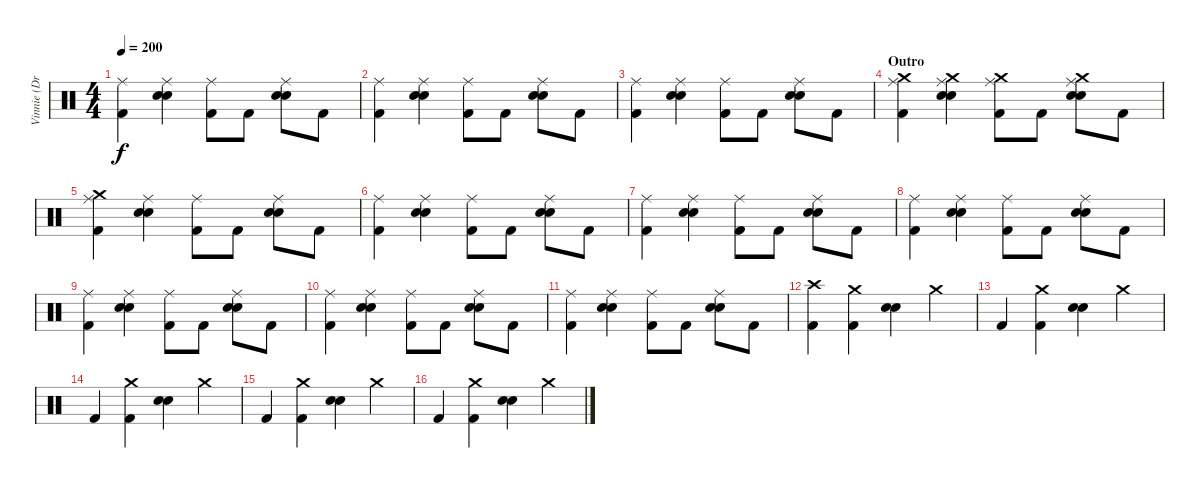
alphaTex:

\track ("Vinnie (Drums)" "Vinnie (Dr") {instrument percussion}
\staff {score}
\articulation defaults
\ts (4 4)
\tempo 200
\clef neutral
\ks c
("Kick (hit) 2" "Ride (middle)").4{dy f} ("Snare (hit) 2" "Electric Snare (hit)" "Ride (middle)").4 ("Kick (hit) 2" "Ride (middle)").8 "Kick (hit) 2".8 ("Snare (hit) 2" "Electric Snare (hit)" "Ride (middle)").8 "Kick (hit) 2".8 |
("Kick (hit) 2" "Ride (middle)").4 ("Snare (hit) 2" "Electric Snare (hit)" "Ride (middle)").4 ("Kick (hit) 2" "Ride (middle)").8 "Kick (hit) 2".8 ("Snare (hit) 2" "Electric Snare (hit)" "Ride (middle)").8 "Kick (hit) 2".8 |
("Kick (hit) 2" "Ride (middle)").4 ("Snare (hit) 2" "Electric Snare (hit)" "Ride (middle)").4 ("Kick (hit) 2" "Ride (middle)").8 "Kick (hit) 2".8 ("Snare (hit) 2" "Electric Snare (hit)" "Ride (middle)").8 "Kick (hit) 2".8 |
\section ("" "Outro")
("Kick (hit) 2" "Ride (middle)" "Crash medium (hit)").4 ("Snare (hit) 2" "Electric Snare (hit)" "Ride (middle)" "Crash medium (hit)").4 ("Kick (hit) 2" "Ride (middle)" "Crash medium (hit)").8 "Kick (hit) 2".8 ("Snare (hit) 2" "Electric Snare (hit)" "Ride (middle)" "Crash medium (hit)").8 "Kick (hit) 2".8 |
("Kick (hit) 2" "Ride (middle)" "Crash medium (hit)").4 ("Snare (hit) 2" "Electric Snare (hit)" "Ride (middle)").4 ("Kick (hit) 2" "Ride (middle)").8 "Kick (hit) 2".8 ("Snare (hit) 2" "Electric Snare (hit)" "Ride (middle)").8 "Kick (hit) 2".8 |
("Kick (hit) 2" "Ride (middle)").4 ("Snare (hit) 2" "Electric Snare (hit)" "Ride (middle)").4 ("Kick (hit) 2" "Ride (middle)").8 "Kick (hit) 2".8 ("Snare (hit) 2" "Electric Snare (hit)" "Ride (middle)").8 "Kick (hit) 2".8 |
("Kick (hit) 2" "Ride (middle)").4 ("Snare (hit) 2" "Electric Snare (hit)" "Ride (middle)").4 ("Kick (hit) 2" "Ride (middle)").8 "Kick (hit) 2".8 ("Snare (hit) 2" "Electric Snare (hit)" "Ride (middle)").8 "Kick (hit) 2".8 |
("Kick (hit) 2" "Ride (middle)").4 ("Snare (hit) 2" "Electric Snare (hit)" "Ride (middle)").4 ("Kick (hit) 2" "Ride (middle)").8 "Kick (hit) 2".8 ("Snare (hit) 2" "Electric Snare (hit)" "Ride (middle)").8 "Kick (hit) 2".8 |
("Kick (hit) 2" "Ride (middle)").4 ("Snare (hit) 2" "Electric Snare (hit)" "Ride (middle)").4 ("Kick (hit) 2" "Ride (middle)").8 "Kick (hit) 2".8 ("Snare (hit) 2" "Electric Snare (hit)" "Ride (middle)").8 "Kick (hit) 2".8 |
("Kick (hit) 2" "Ride (middle)").4 ("Snare (hit) 2" "Electric Snare (hit)" "Ride (middle)").4 ("Kick (hit) 2" "Ride (middle)").8 "Kick (hit) 2".8 ("Snare (hit) 2" "Electric Snare (hit)" "Ride (middle)").8 "Kick (hit) 2".8 |
("Kick (hit) 2" "Ride (middle)").4 ("Snare (hit) 2" "Electric Snare (hit)" "Ride (middle)").4 ("Kick (hit) 2" "Ride (middle)").8 "Kick (hit) 2".8 ("Snare (hit) 2" "Electric Snare (hit)" "Ride (middle)").8 "Kick (hit) 2".8 |
("Kick (hit) 2" "Crash high (hit)").4 ("Kick (hit) 2" "Crash medium (hit)").4 ("Snare (hit) 2" "Electric Snare (hit)").4 "Crash medium (hit)".4 |
"Kick (hit) 2".4 ("Kick (hit) 2" "Crash medium (hit)").4 ("Snare (hit) 2" "Electric Snare (hit)").4 "Crash medium (hit)".4 |
"Kick (hit) 2".4 ("Kick (hit) 2" "Crash medium (hit)").4 ("Snare (hit) 2" "Electric Snare (hit)").4 "Crash medium (hit)".4 |
"Kick (hit) 2".4 ("Kick (hit) 2" "Crash medium (hit)").4 ("Snare (hit) 2" "Electric Snare (hit)").4 "Crash medium (hit)".4 |
"Kick (hit) 2".4 ("Kick (hit) 2" "Crash medium (hit)").4 ("Snare (hit) 2" "Electric Snare (hit)").4 "Crash medium (hit)".4
